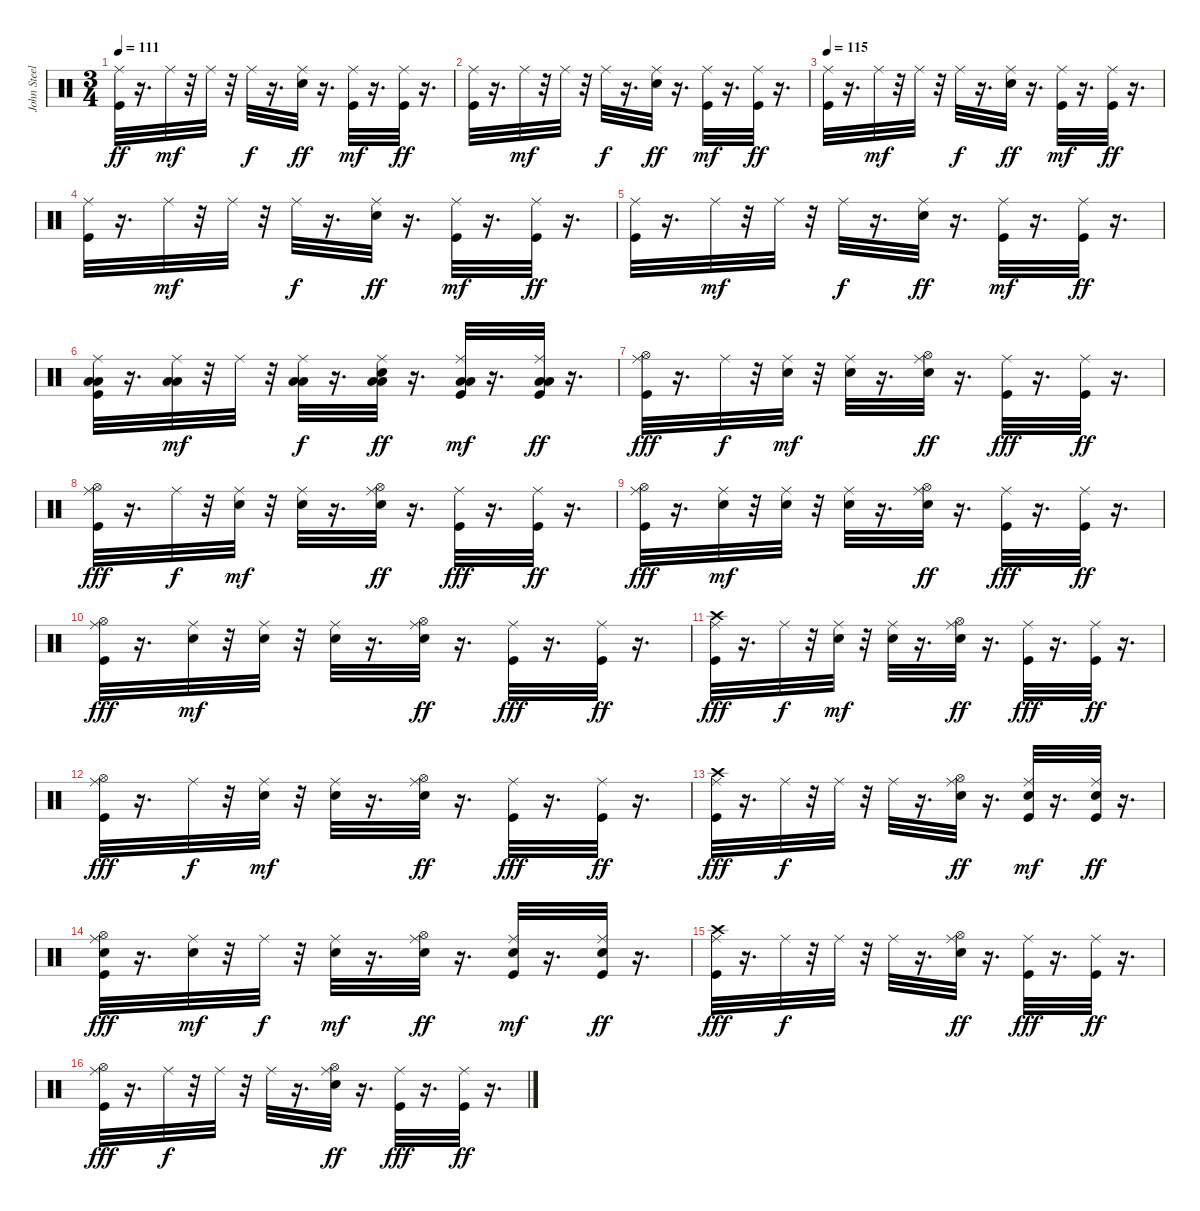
\track ("John Steel" "John Steel") {instrument percussion}
\staff {score}
\articulation defaults
\ts (3 4)
\tempo 111
\clef neutral
\ks c
("Kick (hit)" "Ride (middle)").32{dy ff} r.16{d} "Ride (middle)".32{dy mf} r.32 "Ride (middle)".32 r.32 "Ride (middle)".32{dy f} r.16{d} ("Snare (hit) 2" "Ride (middle)").32{dy ff} r.16{d} ("Kick (hit)" "Ride (middle)").32{dy mf} r.16{d} ("Kick (hit)" "Ride (middle)").32{dy ff} r.16{d} |
("Kick (hit)" "Ride (middle)").32 r.16{d} "Ride (middle)".32{dy mf} r.32 "Ride (middle)".32 r.32 "Ride (middle)".32{dy f} r.16{d} ("Snare (hit) 2" "Ride (middle)").32{dy ff} r.16{d} ("Kick (hit)" "Ride (middle)").32{dy mf} r.16{d} ("Kick (hit)" "Ride (middle)").32{dy ff} r.16{d} |
\tempo 115
("Kick (hit)" "Ride (middle)").32 r.16{d} "Ride (middle)".32{dy mf} r.32 "Ride (middle)".32 r.32 "Ride (middle)".32{dy f} r.16{d} ("Snare (hit) 2" "Ride (middle)").32{dy ff} r.16{d} ("Kick (hit)" "Ride (middle)").32{dy mf} r.16{d} ("Kick (hit)" "Ride (middle)").32{dy ff} r.16{d} |
("Kick (hit)" "Ride (middle)").32 r.16{d} "Ride (middle)".32{dy mf} r.32 "Ride (middle)".32 r.32 "Ride (middle)".32{dy f} r.16{d} ("Snare (hit) 2" "Ride (middle)").32{dy ff} r.16{d} ("Kick (hit)" "Ride (middle)").32{dy mf} r.16{d} ("Kick (hit)" "Ride (middle)").32{dy ff} r.16{d} |
("Kick (hit)" "Ride (middle)").32 r.16{d} "Ride (middle)".32{dy mf} r.32 "Ride (middle)".32 r.32 "Ride (middle)".32{dy f} r.16{d} ("Snare (hit) 2" "Ride (middle)").32{dy ff} r.16{d} ("Kick (hit)" "Ride (middle)").32{dy mf} r.16{d} ("Kick (hit)" "Ride (middle)").32{dy ff} r.16{d} |
("Kick (hit)" "Low Floor Tom (hit)" "Low Tom (hit)" "Ride (middle)").32 r.16{d} ("Low Floor Tom (hit)" "Low Tom (hit)" "Ride (middle)").32{dy mf} r.32 "Ride (middle)".32 r.32 ("Low Floor Tom (hit)" "Low Tom (hit)" "Ride (middle)").32{dy f} r.16{d} ("Snare (hit) 2" "Low Floor Tom (hit)" "Low Tom (hit)" "Ride (middle)").32{dy ff} r.16{d} ("Kick (hit)" "Low Floor Tom (hit)" "Low Tom (hit)" "Ride (middle)").32{dy mf} r.16{d} ("Kick (hit)" "Low Floor Tom (hit)" "Low Tom (hit)" "Ride (middle)").32{dy ff} r.16{d} |
("Kick (hit)" "Hi-Hat (open)" "Ride (middle)").32{dy fff} r.16{d} "Ride (middle)".32{dy f} r.32 ("Snare (hit) 2" "Ride (middle)").32{dy mf} r.32 ("Snare (hit) 2" "Ride (middle)").32 r.16{d} ("Snare (hit) 2" "Hi-Hat (open)" "Ride (middle)").32{dy ff} r.16{d} ("Kick (hit)" "Ride (middle)").32{dy fff} r.16{d} ("Kick (hit)" "Ride (middle)").32{dy ff} r.16{d} |
("Kick (hit)" "Hi-Hat (open)" "Ride (middle)").32{dy fff} r.16{d} "Ride (middle)".32{dy f} r.32 ("Snare (hit) 2" "Ride (middle)").32{dy mf} r.32 ("Snare (hit) 2" "Ride (middle)").32 r.16{d} ("Snare (hit) 2" "Hi-Hat (open)" "Ride (middle)").32{dy ff} r.16{d} ("Kick (hit)" "Ride (middle)").32{dy fff} r.16{d} ("Kick (hit)" "Ride (middle)").32{dy ff} r.16{d} |
("Kick (hit)" "Hi-Hat (open)" "Ride (middle)").32{dy fff} r.16{d} ("Snare (hit) 2" "Ride (middle)").32{dy mf} r.32 ("Snare (hit) 2" "Ride (middle)").32 r.32 ("Snare (hit) 2" "Ride (middle)").32 r.16{d} ("Snare (hit) 2" "Hi-Hat (open)" "Ride (middle)").32{dy ff} r.16{d} ("Kick (hit)" "Ride (middle)").32{dy fff} r.16{d} ("Kick (hit)" "Ride (middle)").32{dy ff} r.16{d} |
("Kick (hit)" "Hi-Hat (open)" "Ride (middle)").32{dy fff} r.16{d} ("Snare (hit) 2" "Ride (middle)").32{dy mf} r.32 ("Snare (hit) 2" "Ride (middle)").32 r.32 ("Snare (hit) 2" "Ride (middle)").32 r.16{d} ("Snare (hit) 2" "Hi-Hat (open)" "Ride (middle)").32{dy ff} r.16{d} ("Kick (hit)" "Ride (middle)").32{dy fff} r.16{d} ("Kick (hit)" "Ride (middle)").32{dy ff} r.16{d} |
("Kick (hit)" "Crash high (hit)" "Ride (middle)").32{dy fff} r.16{d} "Ride (middle)".32{dy f} r.32 ("Snare (hit) 2" "Ride (middle)").32{dy mf} r.32 ("Snare (hit) 2" "Ride (middle)").32 r.16{d} ("Snare (hit) 2" "Hi-Hat (open)" "Ride (middle)").32{dy ff} r.16{d} ("Kick (hit)" "Ride (middle)").32{dy fff} r.16{d} ("Kick (hit)" "Ride (middle)").32{dy ff} r.16{d} |
("Kick (hit)" "Hi-Hat (open)" "Ride (middle)").32{dy fff} r.16{d} "Ride (middle)".32{dy f} r.32 ("Snare (hit) 2" "Ride (middle)").32{dy mf} r.32 ("Snare (hit) 2" "Ride (middle)").32 r.16{d} ("Snare (hit) 2" "Hi-Hat (open)" "Ride (middle)").32{dy ff} r.16{d} ("Kick (hit)" "Ride (middle)").32{dy fff} r.16{d} ("Kick (hit)" "Ride (middle)").32{dy ff} r.16{d} |
("Kick (hit)" "Crash high (hit)" "Ride (middle)").32{dy fff} r.16{d} "Ride (middle)".32{dy f} r.32 "Ride (middle)".32 r.32 "Ride (middle)".32 r.16{d} ("Snare (hit) 2" "Hi-Hat (open)" "Ride (middle)").32{dy ff} r.16{d} ("Kick (hit)" "Snare (hit) 2" "Ride (middle)").32{dy mf} r.16{d} ("Kick (hit)" "Snare (hit) 2" "Ride (middle)").32{dy ff} r.16{d} |
("Kick (hit)" "Snare (hit) 2" "Hi-Hat (open)" "Ride (middle)").32{dy fff} r.16{d} ("Snare (hit) 2" "Ride (middle)").32{dy mf} r.32 "Ride (middle)".32{dy f} r.32 ("Snare (hit) 2" "Ride (middle)").32{dy mf} r.16{d} ("Snare (hit) 2" "Hi-Hat (open)" "Ride (middle)").32{dy ff} r.16{d} ("Kick (hit)" "Snare (hit) 2" "Ride (middle)").32{dy mf} r.16{d} ("Kick (hit)" "Snare (hit) 2" "Ride (middle)").32{dy ff} r.16{d} |
("Kick (hit)" "Crash high (hit)" "Ride (middle)").32{dy fff} r.16{d} "Ride (middle)".32{dy f} r.32 "Ride (middle)".32 r.32 "Ride (middle)".32 r.16{d} ("Snare (hit) 2" "Hi-Hat (open)" "Ride (middle)").32{dy ff} r.16{d} ("Kick (hit)" "Ride (middle)").32{dy fff} r.16{d} ("Kick (hit)" "Ride (middle)").32{dy ff} r.16{d} |
("Kick (hit)" "Hi-Hat (open)" "Ride (middle)").32{dy fff} r.16{d} "Ride (middle)".32{dy f} r.32 "Ride (middle)".32 r.32 "Ride (middle)".32 r.16{d} ("Snare (hit) 2" "Hi-Hat (open)" "Ride (middle)").32{dy ff} r.16{d} ("Kick (hit)" "Ride (middle)").32{dy fff} r.16{d} ("Kick (hit)" "Ride (middle)").32{dy ff} r.16{d}
